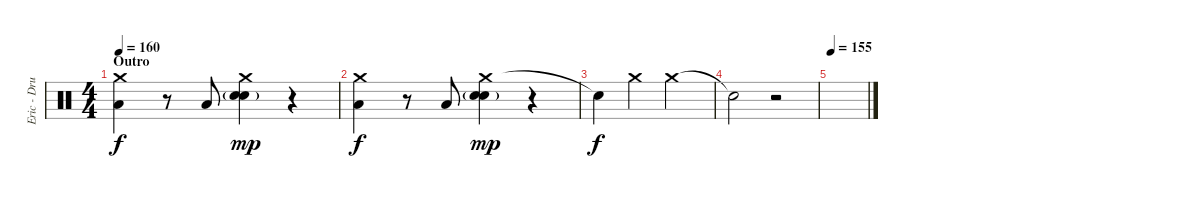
\track ("Eric - Drums" "Eric - Dru") {instrument percussion}
\staff {score}
\articulation defaults
\ts (4 4)
\section ("" "Outro")
\tempo 160
\clef neutral
\ks c
("Crash medium (hit)" "Low Floor Tom (hit)").4{dy f} r.8 "Low Floor Tom (hit)".8 ("Crash medium (hit)" "Electric Snare (hit)" "Snare (hit) 2"{g}).4{dy mp} r.4 |
("Crash medium (hit)" "Low Floor Tom (hit)").4{dy f} r.8 "Low Floor Tom (hit)".8 ("Crash medium (hit)" "Electric Snare (hit)" "Snare (hit) 2"{g}).4{dy mp} r.4 |
"Snare (hit)"{t}.4{dy f} "Crash medium (hit)".4 "Crash medium (hit)".2 |
"Snare (hit)"{t}.2 r.2 |
\tempo 155
